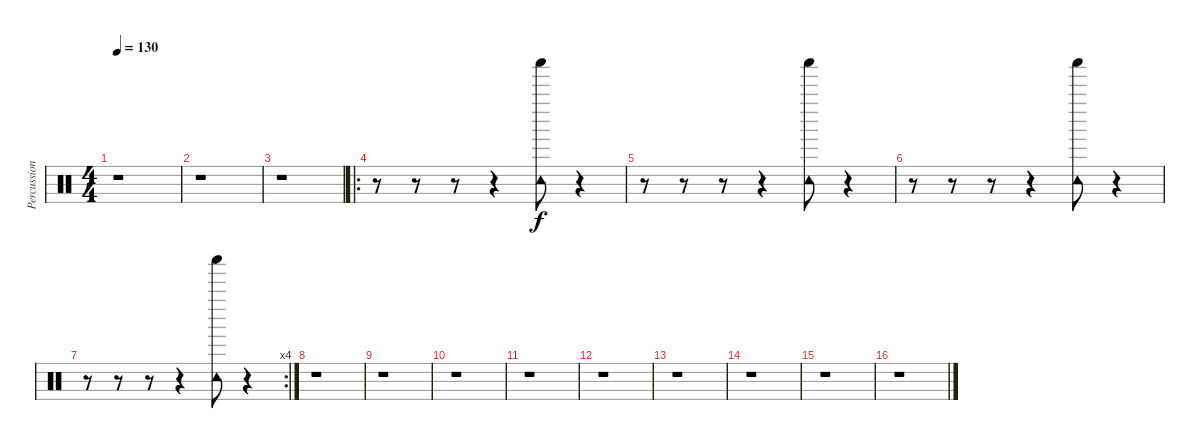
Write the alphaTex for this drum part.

\track ("Percussion" "Percussion") {instrument percussion}
\staff {score}
\articulation defaults
\ts (4 4)
\tempo 130
\clef neutral
\ks c
r.1{dy f} |
r.1 |
r.1 |
\ro
r.8 r.8 r.8 r.4 ("Shaker (hit)" "Tambourine (hit)").8 r.4 |
r.8 r.8 r.8 r.4 ("Shaker (hit)" "Tambourine (hit)").8 r.4 |
r.8 r.8 r.8 r.4 ("Shaker (hit)" "Tambourine (hit)").8 r.4 |
\rc 4
r.8 r.8 r.8 r.4 ("Shaker (hit)" "Tambourine (hit)").8 r.4 |
r.1 |
r.1 |
r.1 |
r.1 |
r.1 |
r.1 |
r.1 |
r.1 |
r.1
